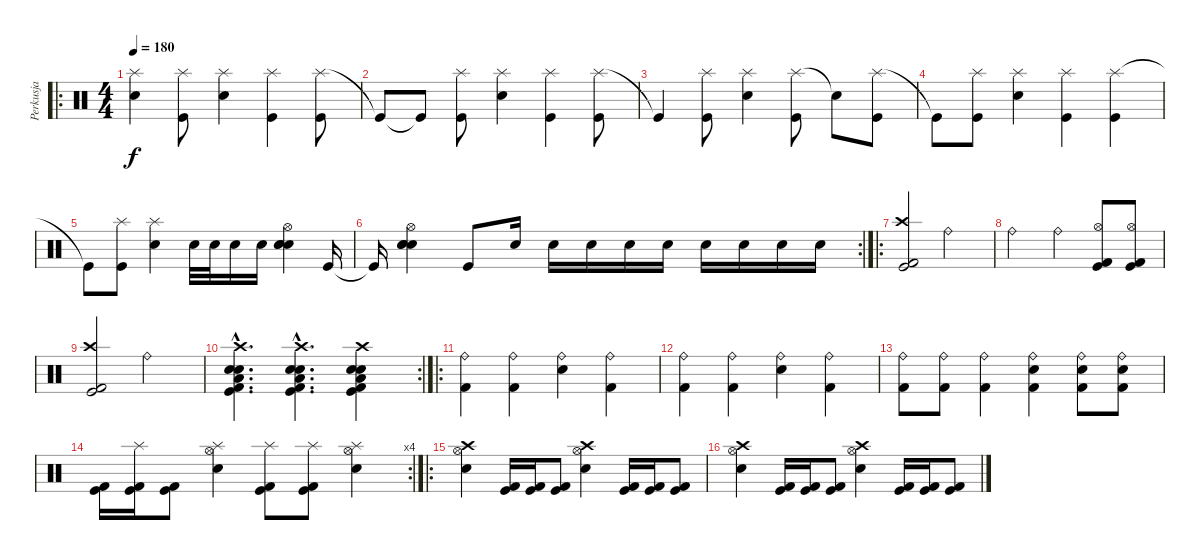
\track ("Perkusja" "Perkusja") {instrument percussion}
\staff {score}
\articulation defaults
\ro
\ts (4 4)
\tempo 180
\clef neutral
\ks c
("Splash (hit)" "Snare (hit) 2").4{dy f} ("Splash (hit)" "Kick (hit)").8 ("Splash (hit)" "Snare (hit) 2").4 ("Splash (hit)" "Kick (hit)").4 ("Splash (hit)" "Kick (hit)").8 |
"Kick (hit)"{t}.8 "Kick (hit)"{t}.8 ("Splash (hit)" "Kick (hit)").8 ("Splash (hit)" "Snare (hit) 2").4 ("Splash (hit)" "Kick (hit)").4 ("Splash (hit)" "Kick (hit)").8 |
"Kick (hit)"{t}.4 ("Splash (hit)" "Kick (hit)").8 ("Splash (hit)" "Snare (hit) 2").4 ("Splash (hit)" "Kick (hit)").8 "Snare (hit)"{t}.8 ("Splash (hit)" "Kick (hit)").8 |
"Kick (hit)"{t}.8 ("Splash (hit)" "Kick (hit)").8 ("Splash (hit)" "Snare (hit) 2").4 ("Splash (hit)" "Kick (hit)").4 ("Splash (hit)" "Kick (hit)").4 |
"Kick (hit)"{t}.8 ("Splash (hit)" "Kick (hit)").8 ("Splash (hit)" "Snare (hit) 2").4 "Electric Snare (hit)".32 "Electric Snare (hit)".32 "Electric Snare (hit)".16 "Electric Snare (hit)".16 ("Hi-Hat (open)" "Snare (hit) 2" "Snare (hit) 2" "Snare (hit) 2").4 "Kick (hit)".16 |
\rc 2 "Kick (hit)"{t}.16
("Hi-Hat (open)" "Snare (hit) 2" "Snare (hit) 2" "Snare (hit) 2").4 "Kick (hit)".8 "Electric Snare (hit)".16 "Electric Snare (hit)".16 "Electric Snare (hit)".16 "Electric Snare (hit)".16 "Electric Snare (hit)".16 "Electric Snare (hit)".16 "Electric Snare (hit)".16 "Electric Snare (hit)".16 "Electric Snare (hit)".16 |
\ro
("Crash high (hit)" "Kick (hit) 2" "Kick (hit)").2 "Ride (bell)".2 |
"Ride (bell)".2 "Ride (bell)".4 ("Hi-Hat (open)" "Kick (hit) 2" "Kick (hit)").8 ("Hi-Hat (open)" "Kick (hit) 2" "Kick (hit)").8 |
("Crash high (hit)" "Kick (hit) 2" "Kick (hit)").2 "Ride (bell)".2 |
\rc 2
("Kick (hit) 2"{hac} "Snare (hit) 2"{hac} "Snare (hit) 2"{hac} "Crash high (hit)"{hac} "Low Floor Tom (hit)"{hac} "Kick (hit)"{hac}).4{d} ("Kick (hit) 2"{hac} "Snare (hit) 2"{hac} "Snare (hit) 2"{hac} "Crash high (hit)"{hac} "Low Floor Tom (hit)"{hac} "Kick (hit)"{hac}).4{d} ("Kick (hit) 2" "Snare (hit) 2" "Snare (hit) 2" "Crash high (hit)" "Low Floor Tom (hit)" "Kick (hit)").4 |
\ro
("Ride (bell)" "Kick (hit) 2").4 ("Ride (bell)" "Kick (hit) 2").4 ("Ride (bell)" "Snare (hit) 2").4 ("Ride (bell)" "Kick (hit) 2").4 |
("Ride (bell)" "Kick (hit) 2").4 ("Ride (bell)" "Kick (hit) 2").4 ("Ride (bell)" "Snare (hit) 2").4 ("Ride (bell)" "Kick (hit) 2").4 |
("Ride (bell)" "Kick (hit) 2").8 ("Ride (bell)" "Kick (hit) 2").8 ("Ride (bell)" "Kick (hit) 2").4 ("Ride (bell)" "Snare (hit) 2" "Kick (hit) 2").4 ("Ride (bell)" "Snare (hit) 2" "Kick (hit) 2").8 ("Ride (bell)" "Snare (hit) 2" "Kick (hit) 2").8 |
\rc 4
("Kick (hit)" "Kick (hit) 2").16 ("Splash (hit)" "Kick (hit)" "Kick (hit) 2").16 ("Kick (hit)" "Kick (hit) 2").8 ("Splash (hit)" "Hi-Hat (open)" "Snare (hit) 2").4 ("Splash (hit)" "Kick (hit) 2" "Kick (hit)").8 ("Splash (hit)" "Kick (hit) 2" "Kick (hit)").8 ("Splash (hit)" "Hi-Hat (open)" "Snare (hit) 2").4 |
\ro
("Hi-Hat (open)" "Crash high (hit)" "Snare (hit) 2").4 ("Kick (hit) 2" "Kick (hit)").16 ("Kick (hit) 2" "Kick (hit)").16 ("Kick (hit) 2" "Kick (hit)").8 ("Hi-Hat (open)" "Crash high (hit)" "Snare (hit) 2").4 ("Kick (hit) 2" "Kick (hit)").16 ("Kick (hit) 2" "Kick (hit)").16 ("Kick (hit) 2" "Kick (hit)").8 |
("Hi-Hat (open)" "Crash high (hit)" "Snare (hit) 2").4 ("Kick (hit) 2" "Kick (hit)").16 ("Kick (hit) 2" "Kick (hit)").16 ("Kick (hit) 2" "Kick (hit)").8 ("Hi-Hat (open)" "Crash high (hit)" "Snare (hit) 2").4 ("Kick (hit)" "Kick (hit) 2").16 ("Kick (hit)" "Kick (hit) 2").16 ("Kick (hit)" "Kick (hit) 2").8
